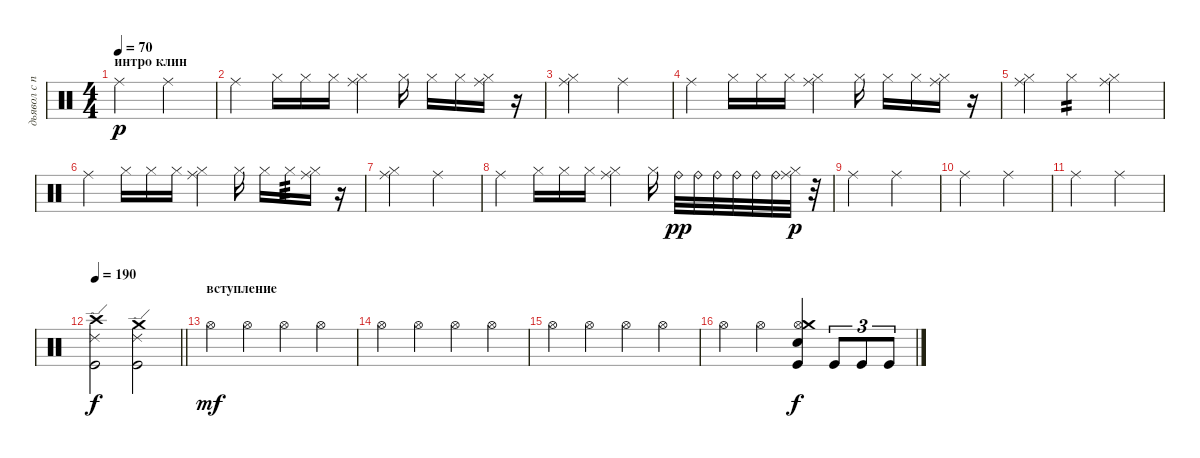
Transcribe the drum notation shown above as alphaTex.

\track ("дьявол с палками" "дьявол с п") {instrument percussion}
\staff {score}
\articulation defaults
\ts (4 4)
\section ("" "интро клин")
\tempo 70
\clef neutral
\ks c "Ride (middle)".2{dy p} "Ride (middle)".2
|
"Ride (middle)".4 "Hi-Hat (closed)".16 "Hi-Hat (closed)".16 "Hi-Hat (closed)".16 ("Hi-Hat (closed)" "Ride (middle)").4 "Hi-Hat (closed)".16 "Hi-Hat (closed)".16 "Hi-Hat (closed)".16 ("Hi-Hat (closed)" "Ride (middle)").16 r.16 |
("Ride (middle)" "Hi-Hat (closed)").2 "Ride (middle)".2 |
"Ride (middle)".4 "Hi-Hat (closed)".16 "Hi-Hat (closed)".16 "Hi-Hat (closed)".16 ("Hi-Hat (closed)" "Ride (middle)").4 "Hi-Hat (closed)".16 "Hi-Hat (closed)".16 "Hi-Hat (closed)".16 ("Hi-Hat (closed)" "Ride (middle)").16 r.16 |
("Ride (middle)" "Hi-Hat (closed)").4 "Hi-Hat (closed)".4{tp 2} ("Ride (middle)" "Hi-Hat (closed)").2 |
"Ride (middle)".4 "Hi-Hat (closed)".16 "Hi-Hat (closed)".16 "Hi-Hat (closed)".16 ("Hi-Hat (closed)" "Ride (middle)").4 "Hi-Hat (closed)".16 "Hi-Hat (closed)".16 "Hi-Hat (closed)".16{tp 3} ("Hi-Hat (closed)" "Ride (middle)").16 r.16 |
("Ride (middle)" "Hi-Hat (closed)").2 "Ride (middle)".2 |
"Ride (middle)".4 "Hi-Hat (closed)".16 "Hi-Hat (closed)".16 "Hi-Hat (closed)".16 ("Hi-Hat (closed)" "Ride (middle)").4 "Hi-Hat (closed)".16 "Ride (bell)".32{dy pp} "Ride (bell)".32 "Ride (bell)".32 "Ride (bell)".32 "Ride (bell)".32 "Ride (bell)".32 ("Hi-Hat (closed)" "Ride (middle)").32{dy p} r.32 |
"Ride (middle)".2 "Ride (middle)".2 |
"Ride (middle)".2 "Ride (middle)".2 |
"Ride (middle)".2 "Ride (middle)".2 |
\tempo 190
\barLineRight lightlight
("Ride (edge) 2" "Kick (hit)" "Crash high (hit)").2{dy f} ("Ride (edge) 2" "Crash medium (hit)" "Kick (hit)").2 |
\section ("" "вступление")
"Hi-Hat (open)".4{dy mf} "Hi-Hat (open)".4 "Hi-Hat (open)".4 "Hi-Hat (open)".4 |
"Hi-Hat (open)".4 "Hi-Hat (open)".4 "Hi-Hat (open)".4 "Hi-Hat (open)".4 |
"Hi-Hat (open)".4 "Hi-Hat (open)".4 "Hi-Hat (open)".4 "Hi-Hat (open)".4 |
"Hi-Hat (open)".4 "Hi-Hat (open)".4 ("Hi-Hat (open)" "Kick (hit)" "Snare (hit) 2" "Crash medium (hit)").4{dy f} "Kick (hit)".8{tu (3 2)} "Kick (hit)".8{tu (3 2)} "Kick (hit)".8{tu (3 2)}
